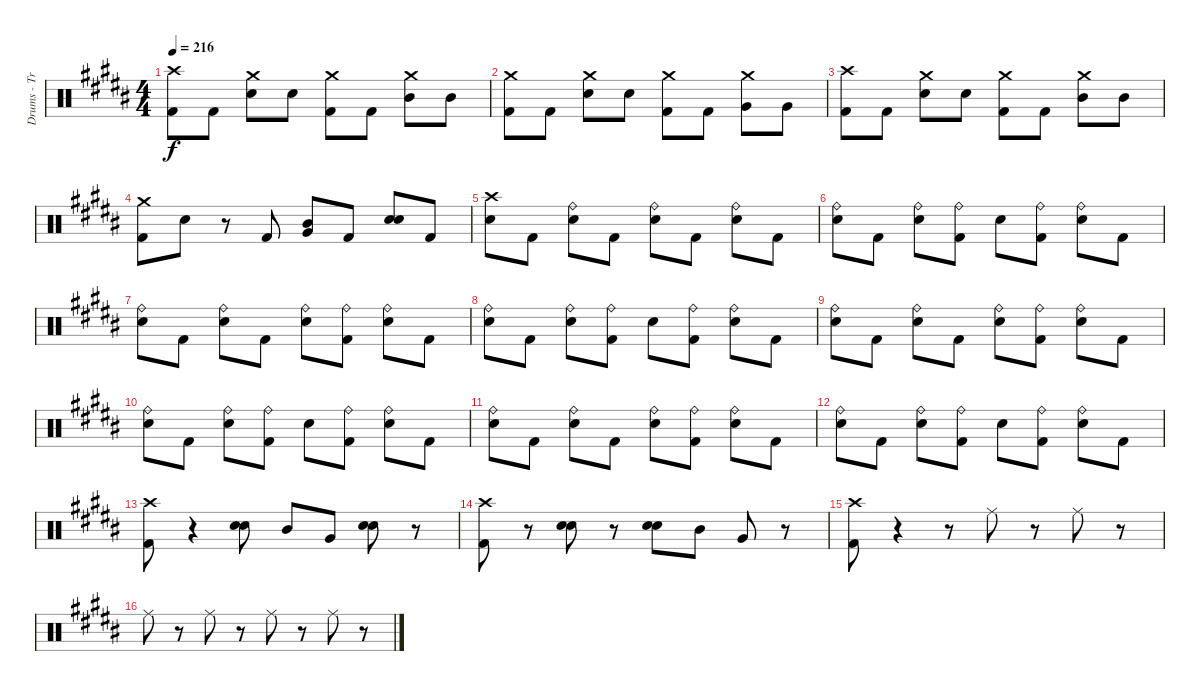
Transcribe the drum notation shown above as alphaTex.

\track ("Drums - Travis Barker" "Drums - Tr") {instrument percussion}
\staff {score}
\articulation defaults
\ts (4 4)
\tempo 216
\clef neutral
\ks b
("Kick (hit) 2" "Crash high (hit)").8{dy f} "Kick (hit) 2".8 ("Snare (hit) 2" "Crash medium (hit)").8 "Snare (hit) 2".8 ("Kick (hit) 2" "Crash medium (hit)").8 "Kick (hit) 2".8 ("Mid Tom (hit)" "Crash medium (hit)").8 "Mid Tom (hit)".8 |
("Kick (hit) 2" "Crash medium (hit)").8 "Kick (hit) 2".8 ("Snare (hit) 2" "Crash medium (hit)").8 "Snare (hit) 2".8 ("Kick (hit) 2" "Crash medium (hit)").8 "Kick (hit) 2".8 ("Very Low Tom (hit)" "Crash medium (hit)").8 "Very Low Tom (hit)".8 |
("Kick (hit) 2" "Crash high (hit)").8 "Kick (hit) 2".8 ("Snare (hit) 2" "Crash medium (hit)").8 "Snare (hit) 2".8 ("Kick (hit) 2" "Crash medium (hit)").8 "Kick (hit) 2".8 ("Mid Tom (hit)" "Crash medium (hit)").8 "Mid Tom (hit)".8 |
("Kick (hit) 2" "Crash medium (hit)").8 "Snare (hit) 2".8 r.8 "Kick (hit) 2".8 ("Mid Tom (hit)" "Very Low Tom (hit)").8 "Kick (hit) 2".8 ("Snare (hit) 2" "Snare (hit) 2").8 "Kick (hit) 2".8 |
("Snare (hit) 2" "Crash high (hit)").8 "Kick (hit) 2".8 ("Snare (hit) 2" "Ride (bell)").8 "Kick (hit) 2".8 ("Snare (hit) 2" "Ride (bell)").8 "Kick (hit) 2".8 ("Snare (hit) 2" "Ride (bell)").8 "Kick (hit) 2".8 |
("Snare (hit) 2" "Ride (bell)").8 "Kick (hit) 2".8 ("Snare (hit) 2" "Ride (bell)").8 ("Kick (hit) 2" "Ride (bell)").8 "Snare (hit) 2".8 ("Kick (hit) 2" "Ride (bell)").8 ("Snare (hit) 2" "Ride (bell)").8 "Kick (hit) 2".8 |
("Snare (hit) 2" "Ride (bell)").8 "Kick (hit) 2".8 ("Snare (hit) 2" "Ride (bell)").8 "Kick (hit) 2".8 ("Snare (hit) 2" "Ride (bell)").8 ("Kick (hit) 2" "Ride (bell)").8 ("Snare (hit) 2" "Ride (bell)").8 "Kick (hit) 2".8 |
("Snare (hit) 2" "Ride (bell)").8 "Kick (hit) 2".8 ("Snare (hit) 2" "Ride (bell)").8 ("Kick (hit) 2" "Ride (bell)").8 "Snare (hit) 2".8 ("Kick (hit) 2" "Ride (bell)").8 ("Snare (hit) 2" "Ride (bell)").8 "Kick (hit) 2".8 |
("Snare (hit) 2" "Ride (bell)").8 "Kick (hit) 2".8 ("Snare (hit) 2" "Ride (bell)").8 "Kick (hit) 2".8 ("Snare (hit) 2" "Ride (bell)").8 ("Kick (hit) 2" "Ride (bell)").8 ("Snare (hit) 2" "Ride (bell)").8 "Kick (hit) 2".8 |
("Snare (hit) 2" "Ride (bell)").8 "Kick (hit) 2".8 ("Snare (hit) 2" "Ride (bell)").8 ("Kick (hit) 2" "Ride (bell)").8 "Snare (hit) 2".8 ("Kick (hit) 2" "Ride (bell)").8 ("Snare (hit) 2" "Ride (bell)").8 "Kick (hit) 2".8 |
("Snare (hit) 2" "Ride (bell)").8 "Kick (hit) 2".8 ("Snare (hit) 2" "Ride (bell)").8 "Kick (hit) 2".8 ("Snare (hit) 2" "Ride (bell)").8 ("Kick (hit) 2" "Ride (bell)").8 ("Snare (hit) 2" "Ride (bell)").8 "Kick (hit) 2".8 |
("Snare (hit) 2" "Ride (bell)").8 "Kick (hit) 2".8 ("Snare (hit) 2" "Ride (bell)").8 ("Kick (hit) 2" "Ride (bell)").8 "Snare (hit) 2".8 ("Kick (hit) 2" "Ride (bell)").8 ("Snare (hit) 2" "Ride (bell)").8 "Kick (hit) 2".8 |
("Kick (hit) 2" "Crash high (hit)").8 r.4 ("Snare (hit) 2" "Snare (hit) 2").8 "Mid Tom (hit)".8 "Very Low Tom (hit)".8 ("Snare (hit) 2" "Snare (hit) 2").8 r.8 |
("Kick (hit) 2" "Crash high (hit)").8 r.8 ("Snare (hit) 2" "Snare (hit) 2").8 r.8 ("Snare (hit) 2" "Snare (hit) 2").8 "Mid Tom (hit)".8 "Very Low Tom (hit)".8 r.8 |
("Kick (hit) 2" "Crash high (hit)").8 r.4 r.8 "Ride (middle)".8 r.8 "Ride (middle)".8 r.8 |
"Ride (middle)".8 r.8 "Ride (middle)".8 r.8 "Ride (middle)".8 r.8 "Ride (middle)".8 r.8
